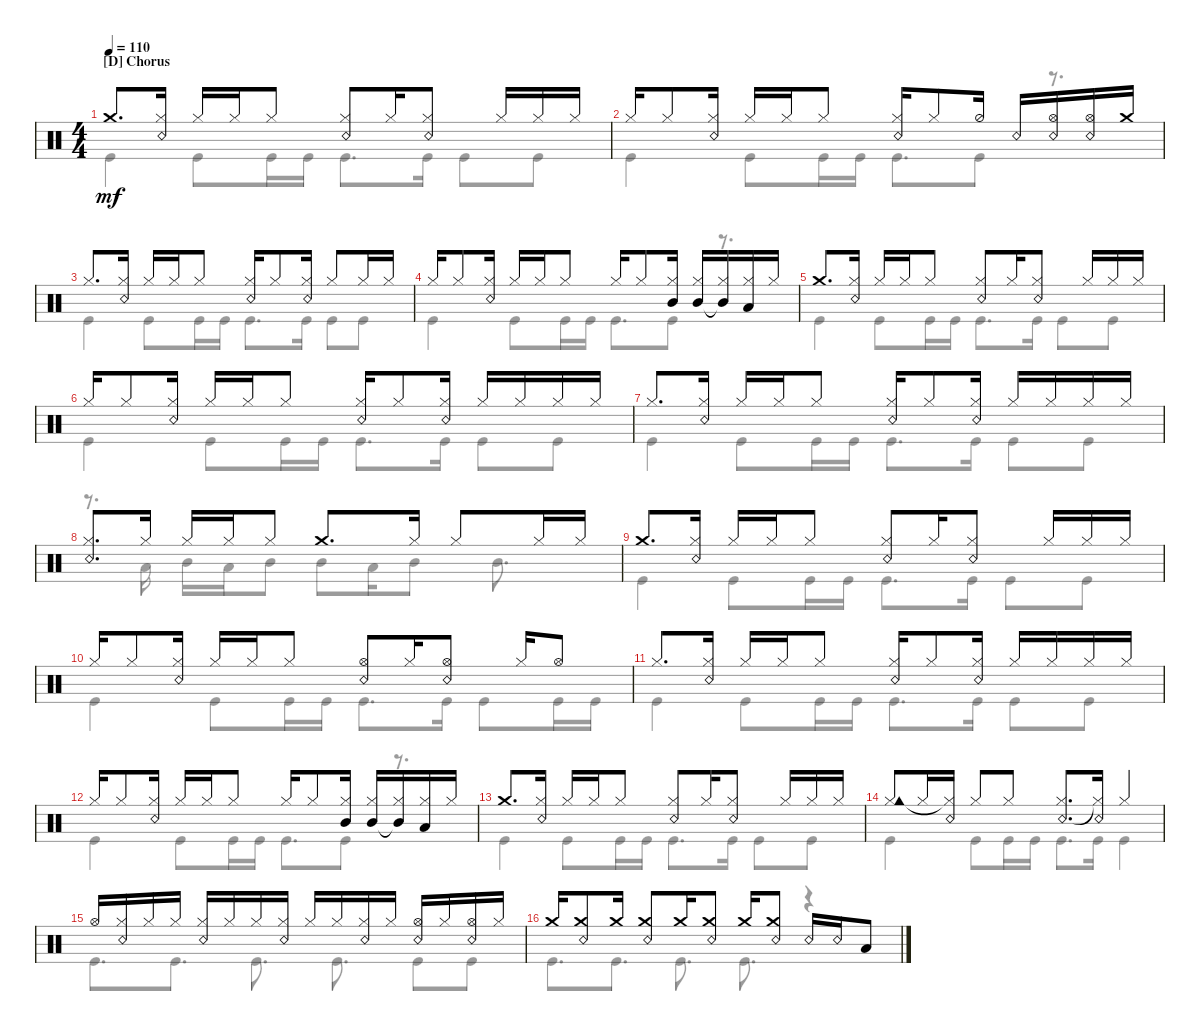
\defaultSystemsLayout 4
\bracketExtendMode groupsimilarinstruments
\singleTrackTrackNamePolicy hidden
\multiTrackTrackNamePolicy hidden
\firstSystemTrackNameOrientation horizontal
\otherSystemsTrackNameOrientation horizontal
\track ("Максим Удалов" "Drums") {instrument percussion}
\staff {score}
\articulation defaults
\voice
\ts (4 4)
\section ("D" "Chorus")
\tempo 110
\clef neutral
\scale
1.02648
\ks c "Crash medium (hit)".8{d dy mf}
("Hi-Hat (closed)" "Snare (rim shot)").16 "Hi-Hat (closed)".16 "Hi-Hat (closed)".16 "Hi-Hat (closed)".8 ("Hi-Hat (closed)" "Snare (rim shot)").8 "Hi-Hat (closed)".16 ("Hi-Hat (closed)" "Snare (rim shot)").8 "Hi-Hat (closed)".16 "Hi-Hat (closed)".16 "Hi-Hat (closed)".16 |
\scale
0.973518 "Hi-Hat (closed)".16 "Hi-Hat (closed)".8 ("Hi-Hat (closed)" "Snare (rim shot)").16 "Hi-Hat (closed)".16 "Hi-Hat (closed)".16 "Hi-Hat (closed)".8 ("Hi-Hat (closed)" "Snare (rim shot)").16 "Hi-Hat (closed)".8 "Hi-Hat (half)".16 "Snare (rim shot)".16 ("Snare (rim shot)" "Hi-Hat (open)").16 ("Snare (rim shot)" "Hi-Hat (open)").16 "Crash medium (hit)".16 |
\scale
1.02648 "Hi-Hat (closed)".8{d} ("Snare (rim shot)" "Hi-Hat (closed)").16 "Hi-Hat (closed)".16 "Hi-Hat (closed)".16 "Hi-Hat (closed)".8 ("Hi-Hat (closed)" "Snare (rim shot)").16 "Hi-Hat (closed)".8 ("Hi-Hat (closed)" "Snare (rim shot)").16 "Hi-Hat (closed)".8 "Hi-Hat (closed)".16 "Hi-Hat (closed)".16 |
\scale
0.973518 "Hi-Hat (closed)".16 "Hi-Hat (closed)".8 ("Snare (rim shot)" "Hi-Hat (closed)").16 "Hi-Hat (closed)".16 "Hi-Hat (closed)".16 "Hi-Hat (closed)".8 "Hi-Hat (closed)".16 "Hi-Hat (closed)".8 ("Hi-Hat (closed)" "Mid Tom (hit)").16 ("Hi-Hat (closed)" "Mid Tom (hit)").16 ("Hi-Hat (closed)" "Mid Tom (hit)"{t}).16 ("Hi-Hat (closed)" "Low Tom (hit)").16 "Hi-Hat (closed)".16 |
\scale
1.02648 "Crash medium (hit)".8{d} ("Hi-Hat (closed)" "Snare (rim shot)").16 "Hi-Hat (closed)".16 "Hi-Hat (closed)".16 "Hi-Hat (closed)".8 ("Hi-Hat (closed)" "Snare (rim shot)").8 "Hi-Hat (closed)".16 ("Hi-Hat (closed)" "Snare (rim shot)").8 "Hi-Hat (closed)".16 "Hi-Hat (closed)".16 "Hi-Hat (closed)".16 |
\scale
0.973518 "Hi-Hat (closed)".16 "Hi-Hat (closed)".8 ("Hi-Hat (closed)" "Snare (rim shot)").16 "Hi-Hat (closed)".16 "Hi-Hat (closed)".16 "Hi-Hat (closed)".8 ("Hi-Hat (closed)" "Snare (rim shot)").16 "Hi-Hat (closed)".8 ("Hi-Hat (closed)" "Snare (rim shot)").16 "Hi-Hat (closed)".16 "Hi-Hat (closed)".16 "Hi-Hat (closed)".16 "Hi-Hat (closed)".16 |
\scale
1.02648 "Hi-Hat (closed)".8{d} ("Snare (rim shot)" "Hi-Hat (closed)").16 "Hi-Hat (closed)".16 "Hi-Hat (closed)".16 "Hi-Hat (closed)".8 ("Hi-Hat (closed)" "Snare (rim shot)").16 "Hi-Hat (closed)".8 ("Hi-Hat (closed)" "Snare (rim shot)").16 "Hi-Hat (closed)".16 "Hi-Hat (closed)".16 "Hi-Hat (closed)".16 "Hi-Hat (closed)".16 |
\scale
0.973518 ("Hi-Hat (closed)" "Snare (rim shot)").8{d} "Hi-Hat (closed)".16 "Hi-Hat (closed)".16 "Hi-Hat (closed)".16 "Hi-Hat (closed)".8 "Crash medium (hit)".8{d} "Hi-Hat (closed)".16 "Hi-Hat (closed)".8 "Hi-Hat (closed)".16 "Hi-Hat (closed)".16 |
\scale
1.02648 "Crash medium (hit)".8{d} ("Hi-Hat (closed)" "Snare (rim shot)").16 "Hi-Hat (closed)".16 "Hi-Hat (closed)".16 "Hi-Hat (closed)".8 ("Hi-Hat (closed)" "Snare (rim shot)").8 "Hi-Hat (closed)".16 ("Hi-Hat (closed)" "Snare (rim shot)").8 "Hi-Hat (closed)".16 "Hi-Hat (closed)".16 "Hi-Hat (closed)".16 |
\scale
0.973518 "Hi-Hat (closed)".16 "Hi-Hat (closed)".8 ("Hi-Hat (closed)" "Snare (rim shot)").16 "Hi-Hat (closed)".16 "Hi-Hat (closed)".16 "Hi-Hat (closed)".8 ("Snare (rim shot)" "Hi-Hat (open)").8 "Hi-Hat (closed)".16 ("Snare (rim shot)" "Hi-Hat (open)").8 "Hi-Hat (closed)".16 "Hi-Hat (open)".8 |
\scale
1.02648 "Hi-Hat (closed)".8{d} ("Snare (rim shot)" "Hi-Hat (closed)").16 "Hi-Hat (closed)".16 "Hi-Hat (closed)".16 "Hi-Hat (closed)".8 ("Hi-Hat (closed)" "Snare (rim shot)").16 "Hi-Hat (closed)".8 ("Hi-Hat (closed)" "Snare (rim shot)").16 "Hi-Hat (closed)".16 "Hi-Hat (closed)".16 "Hi-Hat (closed)".16 "Hi-Hat (closed)".16 |
\scale
0.973518 "Hi-Hat (closed)".16 "Hi-Hat (closed)".8 ("Snare (rim shot)" "Hi-Hat (closed)").16 "Hi-Hat (closed)".16 "Hi-Hat (closed)".16 "Hi-Hat (closed)".8 "Hi-Hat (closed)".16 "Hi-Hat (closed)".8 ("Hi-Hat (closed)" "Mid Tom (hit)").16 ("Hi-Hat (closed)" "Mid Tom (hit)").16 ("Hi-Hat (closed)" "Mid Tom (hit)"{t}).16 ("Hi-Hat (closed)" "Low Tom (hit)").16 "Hi-Hat (closed)".16 |
\scale
1.02648 "Crash medium (hit)".8{d} ("Hi-Hat (closed)" "Snare (rim shot)").16 "Hi-Hat (closed)".16 "Hi-Hat (closed)".16 "Hi-Hat (closed)".8 ("Hi-Hat (closed)" "Snare (rim shot)").8 "Hi-Hat (closed)".16 ("Hi-Hat (closed)" "Snare (rim shot)").8 "Hi-Hat (closed)".16 "Hi-Hat (closed)".16 "Hi-Hat (closed)".16 |
\scale
0.973518 ("Hi-Hat (closed)" "Cowbell high (hit)").8 "Hi-Hat (closed)".16 ("Snare (rim shot)" "Hi-Hat (closed)"{t}).16 "Hi-Hat (closed)".8 "Hi-Hat (closed)".8 ("Hi-Hat (closed)" "Snare (rim shot)").8{d} ("Snare (rim shot)" "Hi-Hat (closed)"{t}).16 "Hi-Hat (closed)".4 |
\scale
1.02648 "Hi-Hat (open)".16 ("Hi-Hat (closed)" "Snare (rim shot)").16 "Hi-Hat (closed)".16 "Hi-Hat (closed)".16 ("Hi-Hat (closed)" "Snare (rim shot)").16 "Hi-Hat (closed)".16 "Hi-Hat (closed)".16 ("Hi-Hat (closed)" "Snare (rim shot)").16 "Hi-Hat (closed)".16 "Hi-Hat (closed)".16 ("Hi-Hat (closed)" "Snare (rim shot)").16 "Hi-Hat (closed)".16 ("Hi-Hat (open)" "Snare (rim shot)").16 "Hi-Hat (closed)".16 ("Hi-Hat (open)" "Snare (rim shot)").16 "Hi-Hat (closed)".16 |
\scale
0.973518 "Crash medium (hit)".16 ("Crash medium (hit)" "Snare (rim shot)").8 "Crash medium (hit)".16 ("Crash medium (hit)" "Snare (rim shot)").8 "Crash medium (hit)".16 ("Crash medium (hit)" "Snare (rim shot)").8 "Crash medium (hit)".16 ("Crash medium (hit)" "Snare (rim shot)").8 "Snare (rim shot)".16 "Snare (rim shot)".16 "Low Tom (hit)".8
\voice
\clef neutral
\ottava regular
\simile none
\scale
1.02648
\ks c "Kick (hit)".4{dy mf} "Kick (hit)".8 "Kick (hit)".16 "Kick (hit)".16 "Kick (hit)".8{d} "Kick (hit)".16 "Kick (hit)".8 "Kick (hit)".8
|
\scale
0.973518 "Kick (hit)".4 "Kick (hit)".8 "Kick (hit)".16 "Kick (hit)".16 "Kick (hit)".8{d} "Kick (hit)".8 r.8{d} |
\scale
1.02648 "Kick (hit)".4 "Kick (hit)".8 "Kick (hit)".16 "Kick (hit)".16 "Kick (hit)".8{d} "Kick (hit)".16 "Kick (hit)".8 "Kick (hit)".8 |
\scale
0.973518 "Kick (hit)".4 "Kick (hit)".8 "Kick (hit)".16 "Kick (hit)".16 "Kick (hit)".8{d} "Kick (hit)".8 r.8{d} |
\scale
1.02648 "Kick (hit)".4 "Kick (hit)".8 "Kick (hit)".16 "Kick (hit)".16 "Kick (hit)".8{d} "Kick (hit)".16 "Kick (hit)".8 "Kick (hit)".8 |
\scale
0.973518 "Kick (hit)".4 "Kick (hit)".8 "Kick (hit)".16 "Kick (hit)".16 "Kick (hit)".8{d} "Kick (hit)".16 "Kick (hit)".8 "Kick (hit)".8 |
\scale
1.02648 "Kick (hit)".4 "Kick (hit)".8 "Kick (hit)".16 "Kick (hit)".16 "Kick (hit)".8{d} "Kick (hit)".16 "Kick (hit)".8 "Kick (hit)".8 |
\scale
0.973518 r.8{d} "Low Tom (hit)".16 "Mid Tom (hit)".16 "Low Tom (hit)".16 "Mid Tom (hit)".8 "Mid Tom (hit)".8 "Low Tom (hit)".16 "Mid Tom (hit)".8 "Mid Tom (hit)".8{d} |
\scale
1.02648 "Kick (hit)".4 "Kick (hit)".8 "Kick (hit)".16 "Kick (hit)".16 "Kick (hit)".8{d} "Kick (hit)".16 "Kick (hit)".8 "Kick (hit)".8 |
\scale
0.973518 "Kick (hit)".4 "Kick (hit)".8 "Kick (hit)".16 "Kick (hit)".16 "Kick (hit)".8{d} "Kick (hit)".16 "Kick (hit)".8 "Kick (hit)".16 "Kick (hit)".16 |
\scale
1.02648 "Kick (hit)".4 "Kick (hit)".8 "Kick (hit)".16 "Kick (hit)".16 "Kick (hit)".8{d} "Kick (hit)".16 "Kick (hit)".8 "Kick (hit)".8 |
\scale
0.973518 "Kick (hit)".4 "Kick (hit)".8 "Kick (hit)".16 "Kick (hit)".16 "Kick (hit)".8{d} "Kick (hit)".8 r.8{d} |
\scale
1.02648 "Kick (hit)".4 "Kick (hit)".8 "Kick (hit)".16 "Kick (hit)".16 "Kick (hit)".8{d} "Kick (hit)".16 "Kick (hit)".8 "Kick (hit)".8 |
\scale
0.973518 "Kick (hit)".4 "Kick (hit)".8 "Kick (hit)".16 "Kick (hit)".16 "Kick (hit)".8{d} "Kick (hit)".16 "Kick (hit)".4 |
\scale
1.02648 "Kick (hit)".8{d} "Kick (hit)".8{d} "Kick (hit)".8{d} "Kick (hit)".8{d} "Kick (hit)".8 "Kick (hit)".8 |
\scale
0.973518 "Kick (hit)".8{d} "Kick (hit)".8{d} "Kick (hit)".8{d} "Kick (hit)".8{d} r.4
